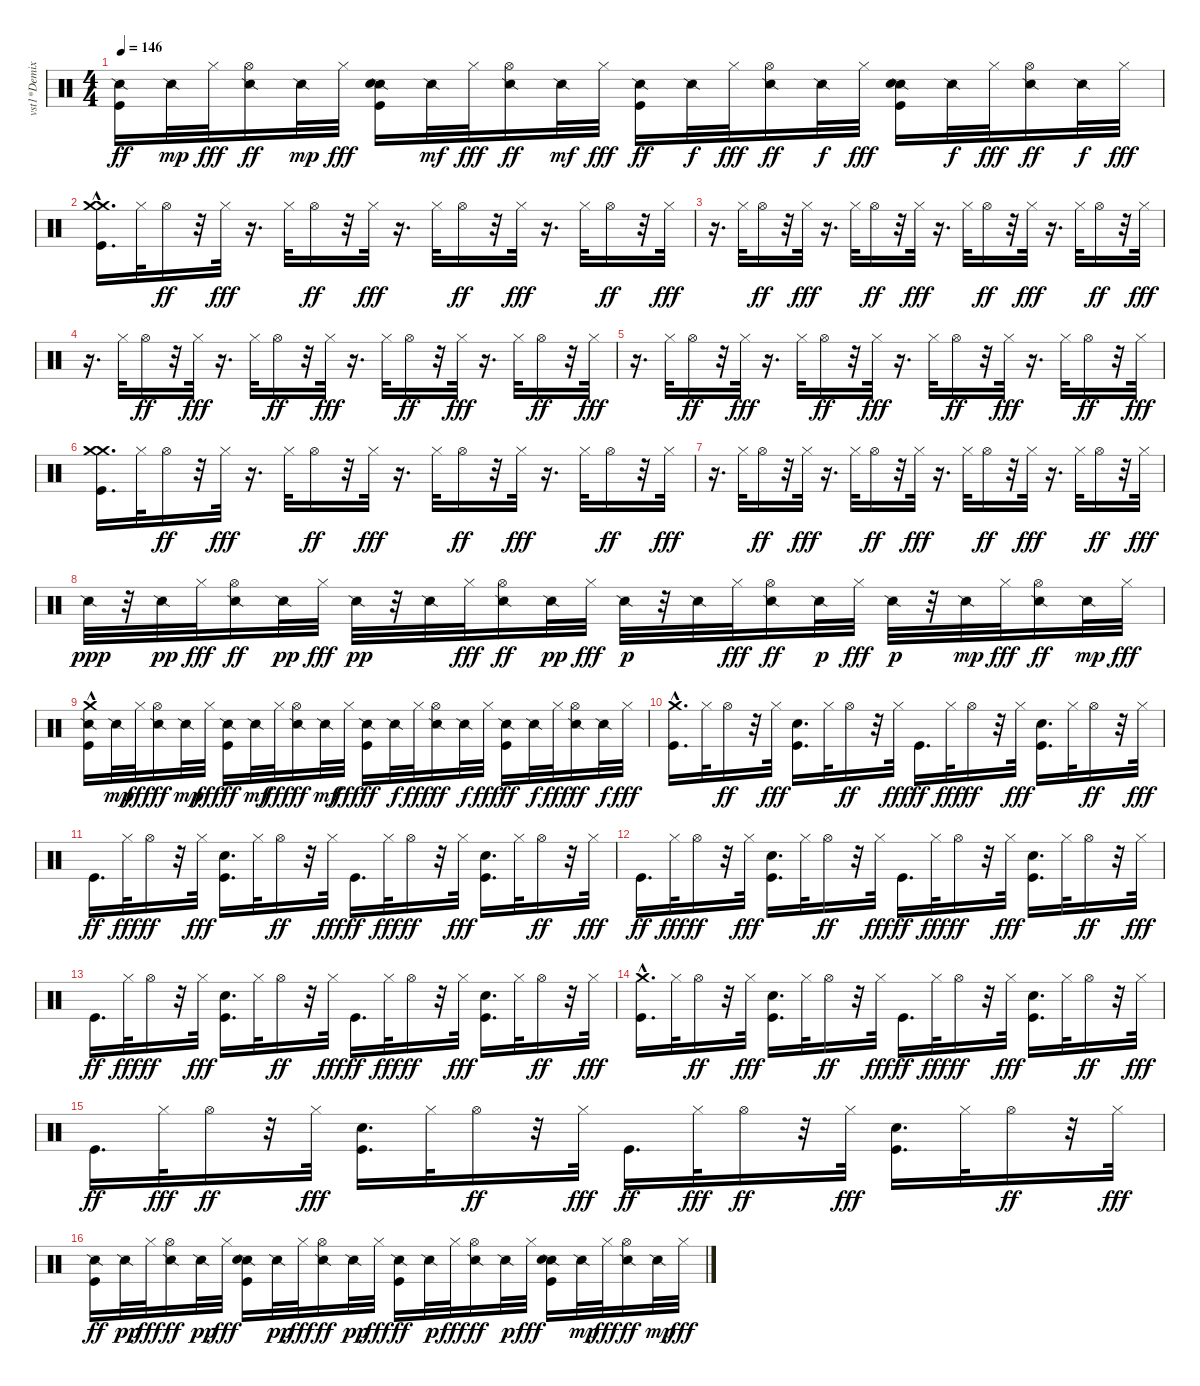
\track ("vst1*Demixed 10" "vst1*Demix") {instrument percussion}
\staff {score}
\articulation defaults
\ts (4 4)
\tempo 146
\clef neutral
\ks c
("Snare (side stick) 2" "Kick (hit)").16{dy ff} "Snare (side stick) 2".32{dy mp} "Hi-Hat (closed)".32{dy fff} ("Snare (side stick) 2" "Hi-Hat (open)").16{dy ff} "Snare (side stick) 2".32{dy mp} "Hi-Hat (closed)".32{dy fff} ("Snare (side stick) 2" "Kick (hit)" "Hand Clap (hit)").16 "Snare (side stick) 2".32{dy mf} "Hi-Hat (closed)".32{dy fff} ("Snare (side stick) 2" "Hi-Hat (open)").16{dy ff} "Snare (side stick) 2".32{dy mf} "Hi-Hat (closed)".32{dy fff} ("Snare (side stick) 2" "Kick (hit)").16{dy ff} "Snare (side stick) 2".32{dy f} "Hi-Hat (closed)".32{dy fff} ("Snare (side stick) 2" "Hi-Hat (open)").16{dy ff} "Snare (side stick) 2".32{dy f} "Hi-Hat (closed)".32{dy fff} ("Snare (side stick) 2" "Kick (hit)" "Hand Clap (hit)").16 "Snare (side stick) 2".32{dy f} "Hi-Hat (closed)".32{dy fff} ("Snare (side stick) 2" "Hi-Hat (open)").16{dy ff} "Snare (side stick) 2".32{dy f} "Hi-Hat (closed)".32{dy fff} |
("Kick (hit)"{hac} "Crash medium (hit)" "Crash medium (hit)").16{d} "Hi-Hat (closed)".32 "Hi-Hat (open)".16{dy ff} r.32 "Hi-Hat (closed)".32{dy fff} r.16{d} "Hi-Hat (closed)".32 "Hi-Hat (open)".16{dy ff} r.32 "Hi-Hat (closed)".32{dy fff} r.16{d} "Hi-Hat (closed)".32 "Hi-Hat (open)".16{dy ff} r.32 "Hi-Hat (closed)".32{dy fff} r.16{d} "Hi-Hat (closed)".32 "Hi-Hat (open)".16{dy ff} r.32 "Hi-Hat (closed)".32{dy fff} |
r.16{d} "Hi-Hat (closed)".32 "Hi-Hat (open)".16{dy ff} r.32 "Hi-Hat (closed)".32{dy fff} r.16{d} "Hi-Hat (closed)".32 "Hi-Hat (open)".16{dy ff} r.32 "Hi-Hat (closed)".32{dy fff} r.16{d} "Hi-Hat (closed)".32 "Hi-Hat (open)".16{dy ff} r.32 "Hi-Hat (closed)".32{dy fff} r.16{d} "Hi-Hat (closed)".32 "Hi-Hat (open)".16{dy ff} r.32 "Hi-Hat (closed)".32{dy fff} |
r.16{d} "Hi-Hat (closed)".32 "Hi-Hat (open)".16{dy ff} r.32 "Hi-Hat (closed)".32{dy fff} r.16{d} "Hi-Hat (closed)".32 "Hi-Hat (open)".16{dy ff} r.32 "Hi-Hat (closed)".32{dy fff} r.16{d} "Hi-Hat (closed)".32 "Hi-Hat (open)".16{dy ff} r.32 "Hi-Hat (closed)".32{dy fff} r.16{d} "Hi-Hat (closed)".32 "Hi-Hat (open)".16{dy ff} r.32 "Hi-Hat (closed)".32{dy fff} |
r.16{d} "Hi-Hat (closed)".32 "Hi-Hat (open)".16{dy ff} r.32 "Hi-Hat (closed)".32{dy fff} r.16{d} "Hi-Hat (closed)".32 "Hi-Hat (open)".16{dy ff} r.32 "Hi-Hat (closed)".32{dy fff} r.16{d} "Hi-Hat (closed)".32 "Hi-Hat (open)".16{dy ff} r.32 "Hi-Hat (closed)".32{dy fff} r.16{d} "Hi-Hat (closed)".32 "Hi-Hat (open)".16{dy ff} r.32 "Hi-Hat (closed)".32{dy fff} |
("Kick (hit)" "Crash medium (hit)" "Crash medium (hit)").16{d} "Hi-Hat (closed)".32 "Hi-Hat (open)".16{dy ff} r.32 "Hi-Hat (closed)".32{dy fff} r.16{d} "Hi-Hat (closed)".32 "Hi-Hat (open)".16{dy ff} r.32 "Hi-Hat (closed)".32{dy fff} r.16{d} "Hi-Hat (closed)".32 "Hi-Hat (open)".16{dy ff} r.32 "Hi-Hat (closed)".32{dy fff} r.16{d} "Hi-Hat (closed)".32 "Hi-Hat (open)".16{dy ff} r.32 "Hi-Hat (closed)".32{dy fff} |
r.16{d} "Hi-Hat (closed)".32 "Hi-Hat (open)".16{dy ff} r.32 "Hi-Hat (closed)".32{dy fff} r.16{d} "Hi-Hat (closed)".32 "Hi-Hat (open)".16{dy ff} r.32 "Hi-Hat (closed)".32{dy fff} r.16{d} "Hi-Hat (closed)".32 "Hi-Hat (open)".16{dy ff} r.32 "Hi-Hat (closed)".32{dy fff} r.16{d} "Hi-Hat (closed)".32 "Hi-Hat (open)".16{dy ff} r.32 "Hi-Hat (closed)".32{dy fff} |
"Snare (side stick) 2".32{dy ppp} r.32 "Snare (side stick) 2".32{dy pp} "Hi-Hat (closed)".32{dy fff} ("Snare (side stick) 2" "Hi-Hat (open)").16{dy ff} "Snare (side stick) 2".32{dy pp} "Hi-Hat (closed)".32{dy fff} "Snare (side stick) 2".32{dy pp} r.32 "Snare (side stick) 2".32 "Hi-Hat (closed)".32{dy fff} ("Snare (side stick) 2" "Hi-Hat (open)").16{dy ff} "Snare (side stick) 2".32{dy pp} "Hi-Hat (closed)".32{dy fff} "Snare (side stick) 2".32{dy p} r.32 "Snare (side stick) 2".32 "Hi-Hat (closed)".32{dy fff} ("Snare (side stick) 2" "Hi-Hat (open)").16{dy ff} "Snare (side stick) 2".32{dy p} "Hi-Hat (closed)".32{dy fff} "Snare (side stick) 2".32{dy p} r.32 "Snare (side stick) 2".32{dy mp} "Hi-Hat (closed)".32{dy fff} ("Snare (side stick) 2" "Hi-Hat (open)").16{dy ff} "Snare (side stick) 2".32{dy mp} "Hi-Hat (closed)".32{dy fff} |
("Snare (side stick) 2" "Kick (hit)"{hac} "Crash medium (hit)"{hac}).16 "Snare (side stick) 2".32{dy mp} "Hi-Hat (closed)".32{dy fff} ("Snare (side stick) 2" "Hi-Hat (open)").16{dy ff} "Snare (side stick) 2".32{dy mp} "Hi-Hat (closed)".32{dy fff} ("Snare (side stick) 2" "Kick (hit)").16{dy ff} "Snare (side stick) 2".32{dy mf} "Hi-Hat (closed)".32{dy fff} ("Snare (side stick) 2" "Hi-Hat (open)").16{dy ff} "Snare (side stick) 2".32{dy mf} "Hi-Hat (closed)".32{dy fff} ("Snare (side stick) 2" "Kick (hit)").16{dy ff} "Snare (side stick) 2".32{dy f} "Hi-Hat (closed)".32{dy fff} ("Snare (side stick) 2" "Hi-Hat (open)").16{dy ff} "Snare (side stick) 2".32{dy f} "Hi-Hat (closed)".32{dy fff} ("Snare (side stick) 2" "Kick (hit)").16{dy ff} "Snare (side stick) 2".32{dy f} "Hi-Hat (closed)".32{dy fff} ("Snare (side stick) 2" "Hi-Hat (open)").16{dy ff} "Snare (side stick) 2".32{dy f} "Hi-Hat (closed)".32{dy fff} |
("Kick (hit)"{hac} "Crash medium (hit)"{hac}).16{d} "Hi-Hat (closed)".32 "Hi-Hat (open)".16{dy ff} r.32 "Hi-Hat (closed)".32{dy fff} ("Kick (hit)" "Hand Clap (hit)").16{d} "Hi-Hat (closed)".32 "Hi-Hat (open)".16{dy ff} r.32 "Hi-Hat (closed)".32{dy fff} "Kick (hit)".16{d dy ff} "Hi-Hat (closed)".32{dy fff} "Hi-Hat (open)".16{dy ff} r.32 "Hi-Hat (closed)".32{dy fff} ("Kick (hit)" "Hand Clap (hit)").16{d} "Hi-Hat (closed)".32 "Hi-Hat (open)".16{dy ff} r.32 "Hi-Hat (closed)".32{dy fff} |
"Kick (hit)".16{d dy ff} "Hi-Hat (closed)".32{dy fff} "Hi-Hat (open)".16{dy ff} r.32 "Hi-Hat (closed)".32{dy fff} ("Kick (hit)" "Hand Clap (hit)").16{d} "Hi-Hat (closed)".32 "Hi-Hat (open)".16{dy ff} r.32 "Hi-Hat (closed)".32{dy fff} "Kick (hit)".16{d dy ff} "Hi-Hat (closed)".32{dy fff} "Hi-Hat (open)".16{dy ff} r.32 "Hi-Hat (closed)".32{dy fff} ("Kick (hit)" "Hand Clap (hit)").16{d} "Hi-Hat (closed)".32 "Hi-Hat (open)".16{dy ff} r.32 "Hi-Hat (closed)".32{dy fff} |
"Kick (hit)".16{d dy ff} "Hi-Hat (closed)".32{dy fff} "Hi-Hat (open)".16{dy ff} r.32 "Hi-Hat (closed)".32{dy fff} ("Kick (hit)" "Hand Clap (hit)").16{d} "Hi-Hat (closed)".32 "Hi-Hat (open)".16{dy ff} r.32 "Hi-Hat (closed)".32{dy fff} "Kick (hit)".16{d dy ff} "Hi-Hat (closed)".32{dy fff} "Hi-Hat (open)".16{dy ff} r.32 "Hi-Hat (closed)".32{dy fff} ("Kick (hit)" "Hand Clap (hit)").16{d} "Hi-Hat (closed)".32 "Hi-Hat (open)".16{dy ff} r.32 "Hi-Hat (closed)".32{dy fff} |
"Kick (hit)".16{d dy ff} "Hi-Hat (closed)".32{dy fff} "Hi-Hat (open)".16{dy ff} r.32 "Hi-Hat (closed)".32{dy fff} ("Kick (hit)" "Hand Clap (hit)").16{d} "Hi-Hat (closed)".32 "Hi-Hat (open)".16{dy ff} r.32 "Hi-Hat (closed)".32{dy fff} "Kick (hit)".16{d dy ff} "Hi-Hat (closed)".32{dy fff} "Hi-Hat (open)".16{dy ff} r.32 "Hi-Hat (closed)".32{dy fff} ("Kick (hit)" "Hand Clap (hit)").16{d} "Hi-Hat (closed)".32 "Hi-Hat (open)".16{dy ff} r.32 "Hi-Hat (closed)".32{dy fff} |
("Kick (hit)" "Crash medium (hit)"{hac}).16{d} "Hi-Hat (closed)".32 "Hi-Hat (open)".16{dy ff} r.32 "Hi-Hat (closed)".32{dy fff} ("Kick (hit)" "Hand Clap (hit)").16{d} "Hi-Hat (closed)".32 "Hi-Hat (open)".16{dy ff} r.32 "Hi-Hat (closed)".32{dy fff} "Kick (hit)".16{d dy ff} "Hi-Hat (closed)".32{dy fff} "Hi-Hat (open)".16{dy ff} r.32 "Hi-Hat (closed)".32{dy fff} ("Kick (hit)" "Hand Clap (hit)").16{d} "Hi-Hat (closed)".32 "Hi-Hat (open)".16{dy ff} r.32 "Hi-Hat (closed)".32{dy fff} |
"Kick (hit)".16{d dy ff} "Hi-Hat (closed)".32{dy fff} "Hi-Hat (open)".16{dy ff} r.32 "Hi-Hat (closed)".32{dy fff} ("Kick (hit)" "Hand Clap (hit)").16{d} "Hi-Hat (closed)".32 "Hi-Hat (open)".16{dy ff} r.32 "Hi-Hat (closed)".32{dy fff} "Kick (hit)".16{d dy ff} "Hi-Hat (closed)".32{dy fff} "Hi-Hat (open)".16{dy ff} r.32 "Hi-Hat (closed)".32{dy fff} ("Kick (hit)" "Hand Clap (hit)").16{d} "Hi-Hat (closed)".32 "Hi-Hat (open)".16{dy ff} r.32 "Hi-Hat (closed)".32{dy fff} |
("Snare (side stick) 2" "Kick (hit)").16{dy ff} "Snare (side stick) 2".32{dy pp} "Hi-Hat (closed)".32{dy fff} ("Snare (side stick) 2" "Hi-Hat (open)").16{dy ff} "Snare (side stick) 2".32{dy pp} "Hi-Hat (closed)".32{dy fff} ("Snare (side stick) 2" "Kick (hit)" "Hand Clap (hit)").16 "Snare (side stick) 2".32{dy pp} "Hi-Hat (closed)".32{dy fff} ("Snare (side stick) 2" "Hi-Hat (open)").16{dy ff} "Snare (side stick) 2".32{dy pp} "Hi-Hat (closed)".32{dy fff} ("Snare (side stick) 2" "Kick (hit)").16{dy ff} "Snare (side stick) 2".32{dy p} "Hi-Hat (closed)".32{dy fff} ("Snare (side stick) 2" "Hi-Hat (open)").16{dy ff} "Snare (side stick) 2".32{dy p} "Hi-Hat (closed)".32{dy fff} ("Snare (side stick) 2" "Kick (hit)" "Hand Clap (hit)").16 "Snare (side stick) 2".32{dy mp} "Hi-Hat (closed)".32{dy fff} ("Snare (side stick) 2" "Hi-Hat (open)").16{dy ff} "Snare (side stick) 2".32{dy mp} "Hi-Hat (closed)".32{dy fff}
